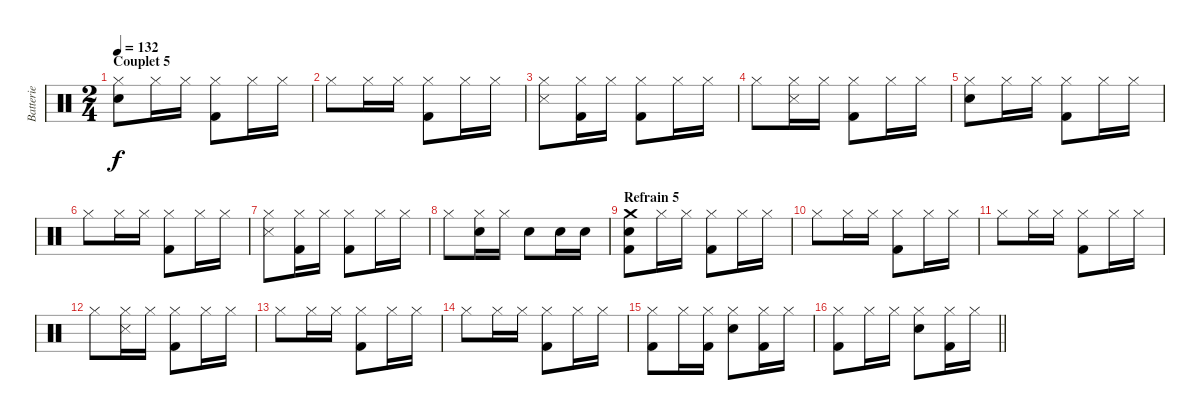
\track ("Batterie" "Batterie") {instrument percussion}
\staff {score}
\articulation defaults
\ts (2 4)
\section ("" "Couplet 5")
\tempo 132
\clef neutral
\ks c
("Hi-Hat (closed)" "Snare (hit) 2").8{dy f} "Hi-Hat (closed)".16 "Hi-Hat (closed)".16 ("Hi-Hat (closed)" "Kick (hit) 2").8 "Hi-Hat (closed)".16 "Hi-Hat (closed)".16 |
"Hi-Hat (closed)".8 "Hi-Hat (closed)".16 "Hi-Hat (closed)".16 ("Hi-Hat (closed)" "Kick (hit) 2").8 "Hi-Hat (closed)".16 "Hi-Hat (closed)".16 |
("Hi-Hat (closed)" "Snare (side stick) 3").8 ("Hi-Hat (closed)" "Kick (hit) 2").16 "Hi-Hat (closed)".16 ("Hi-Hat (closed)" "Kick (hit) 2").8 "Hi-Hat (closed)".16 "Hi-Hat (closed)".16 |
"Hi-Hat (closed)".8 ("Hi-Hat (closed)" "Snare (side stick) 3").16 "Hi-Hat (closed)".16 ("Hi-Hat (closed)" "Kick (hit) 2").8 "Hi-Hat (closed)".16 "Hi-Hat (closed)".16 |
("Hi-Hat (closed)" "Snare (hit) 2").8 "Hi-Hat (closed)".16 "Hi-Hat (closed)".16 ("Hi-Hat (closed)" "Kick (hit) 2").8 "Hi-Hat (closed)".16 "Hi-Hat (closed)".16 |
"Hi-Hat (closed)".8 "Hi-Hat (closed)".16 "Hi-Hat (closed)".16 ("Hi-Hat (closed)" "Kick (hit) 2").8 "Hi-Hat (closed)".16 "Hi-Hat (closed)".16 |
("Hi-Hat (closed)" "Snare (side stick) 3").8 ("Hi-Hat (closed)" "Kick (hit) 2").16 "Hi-Hat (closed)".16 ("Hi-Hat (closed)" "Kick (hit) 2").8 "Hi-Hat (closed)".16 "Hi-Hat (closed)".16 |
"Hi-Hat (closed)".8 ("Hi-Hat (closed)" "Snare (hit) 2").16 "Hi-Hat (closed)".16 "Snare (hit) 2".8 "Snare (hit) 2".16 "Snare (hit) 2".16 |
\section ("" "Refrain 5")
("Crash medium (hit)" "Snare (hit) 2" "Kick (hit) 2").8 "Hi-Hat (closed)".16 "Hi-Hat (closed)".16 ("Hi-Hat (closed)" "Kick (hit) 2").8 "Hi-Hat (closed)".16 "Hi-Hat (closed)".16 |
"Hi-Hat (closed)".8 "Hi-Hat (closed)".16 "Hi-Hat (closed)".16 ("Hi-Hat (closed)" "Kick (hit) 2").8 "Hi-Hat (closed)".16 "Hi-Hat (closed)".16 |
"Hi-Hat (closed)".8 "Hi-Hat (closed)".16 "Hi-Hat (closed)".16 ("Hi-Hat (closed)" "Kick (hit) 2").8 "Hi-Hat (closed)".16 "Hi-Hat (closed)".16 |
"Hi-Hat (closed)".8 ("Hi-Hat (closed)" "Snare (side stick) 3").16 "Hi-Hat (closed)".16 ("Hi-Hat (closed)" "Kick (hit) 2").8 "Hi-Hat (closed)".16 "Hi-Hat (closed)".16 |
"Hi-Hat (closed)".8 "Hi-Hat (closed)".16 "Hi-Hat (closed)".16 ("Hi-Hat (closed)" "Kick (hit) 2").8 "Hi-Hat (closed)".16 "Hi-Hat (closed)".16 |
"Hi-Hat (closed)".8 "Hi-Hat (closed)".16 "Hi-Hat (closed)".16 ("Hi-Hat (closed)" "Kick (hit) 2").8 "Hi-Hat (closed)".16 "Hi-Hat (closed)".16 |
("Hi-Hat (closed)" "Kick (hit) 2").8 "Hi-Hat (closed)".16 ("Hi-Hat (closed)" "Kick (hit) 2").16 ("Hi-Hat (closed)" "Snare (hit) 2").8 ("Hi-Hat (closed)" "Kick (hit) 2").16 "Hi-Hat (closed)".16 |
\barLineRight lightlight
("Hi-Hat (closed)" "Kick (hit) 2").8 "Hi-Hat (closed)".16 "Hi-Hat (closed)".16 ("Hi-Hat (closed)" "Snare (hit) 2").8 ("Hi-Hat (closed)" "Kick (hit) 2").16 "Hi-Hat (closed)".16
